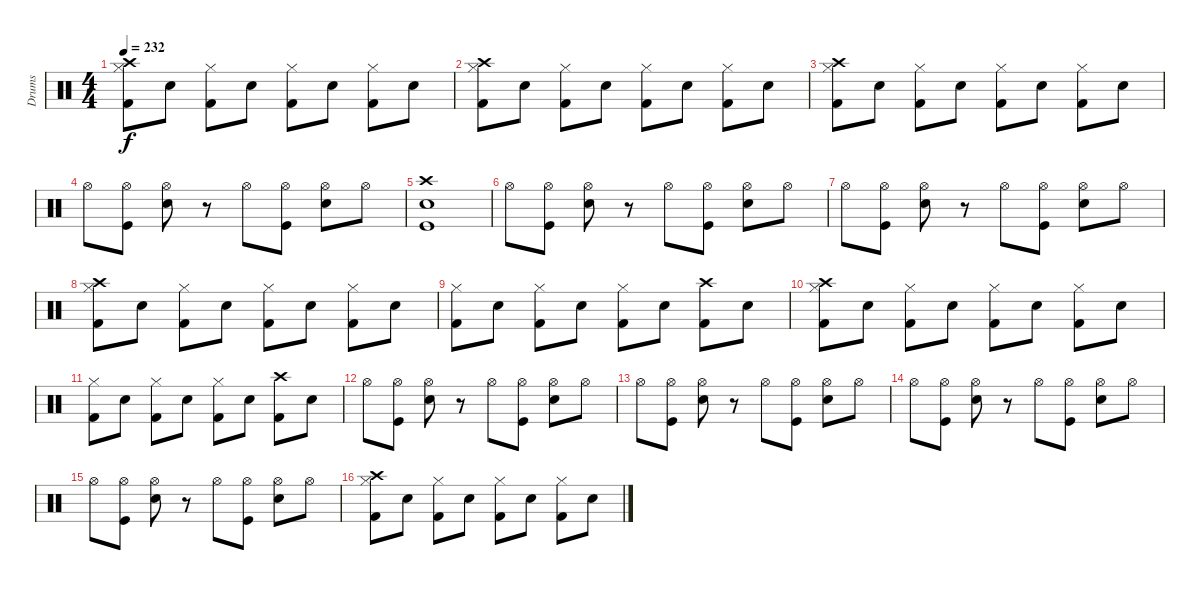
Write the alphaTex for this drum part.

\track ("Drums" "Drums") {instrument percussion}
\staff {score}
\articulation defaults
\ts (4 4)
\tempo 232
\clef neutral
\ks c
("Hi-Hat (closed)" "Crash high (hit)" "Kick (hit) 2").8{dy f} "Electric Snare (hit)".8 ("Hi-Hat (closed)" "Kick (hit) 2").8 "Electric Snare (hit)".8 ("Hi-Hat (closed)" "Kick (hit) 2").8 "Electric Snare (hit)".8 ("Hi-Hat (closed)" "Kick (hit) 2").8 "Electric Snare (hit)".8 |
("Hi-Hat (closed)" "Crash high (hit)" "Kick (hit) 2").8 "Electric Snare (hit)".8 ("Hi-Hat (closed)" "Kick (hit) 2").8 "Electric Snare (hit)".8 ("Hi-Hat (closed)" "Kick (hit) 2").8 "Electric Snare (hit)".8 ("Hi-Hat (closed)" "Kick (hit) 2").8 "Electric Snare (hit)".8 |
("Hi-Hat (closed)" "Crash high (hit)" "Kick (hit) 2").8 "Electric Snare (hit)".8 ("Hi-Hat (closed)" "Kick (hit) 2").8 "Electric Snare (hit)".8 ("Hi-Hat (closed)" "Kick (hit) 2").8 "Electric Snare (hit)".8 ("Hi-Hat (closed)" "Kick (hit) 2").8 "Electric Snare (hit)".8 |
"Hi-Hat (open)".8 ("Hi-Hat (open)" "Kick (hit)").8 ("Hi-Hat (open)" "Electric Snare (hit)").8 r.8 "Hi-Hat (open)".8 ("Hi-Hat (open)" "Kick (hit)").8 ("Hi-Hat (open)" "Electric Snare (hit)").8 "Hi-Hat (open)".8 |
("Crash high (hit)" "Snare (hit) 2" "Kick (hit)").1 |
"Hi-Hat (open)".8 ("Hi-Hat (open)" "Kick (hit)").8 ("Hi-Hat (open)" "Electric Snare (hit)").8 r.8 "Hi-Hat (open)".8 ("Hi-Hat (open)" "Kick (hit)").8 ("Hi-Hat (open)" "Electric Snare (hit)").8 "Hi-Hat (open)".8 |
"Hi-Hat (open)".8 ("Hi-Hat (open)" "Kick (hit)").8 ("Hi-Hat (open)" "Electric Snare (hit)").8 r.8 "Hi-Hat (open)".8 ("Hi-Hat (open)" "Kick (hit)").8 ("Hi-Hat (open)" "Electric Snare (hit)").8 "Hi-Hat (open)".8 |
("Hi-Hat (closed)" "Crash high (hit)" "Kick (hit) 2").8 "Electric Snare (hit)".8 ("Hi-Hat (closed)" "Kick (hit) 2").8 "Electric Snare (hit)".8 ("Hi-Hat (closed)" "Kick (hit) 2").8 "Electric Snare (hit)".8 ("Hi-Hat (closed)" "Kick (hit) 2").8 "Electric Snare (hit)".8 |
("Hi-Hat (closed)" "Kick (hit) 2").8 "Electric Snare (hit)".8 ("Hi-Hat (closed)" "Kick (hit) 2").8 "Electric Snare (hit)".8 ("Hi-Hat (closed)" "Kick (hit) 2").8 "Electric Snare (hit)".8 ("Crash high (hit)" "Kick (hit) 2").8 "Electric Snare (hit)".8 |
("Hi-Hat (closed)" "Crash high (hit)" "Kick (hit) 2").8 "Electric Snare (hit)".8 ("Hi-Hat (closed)" "Kick (hit) 2").8 "Electric Snare (hit)".8 ("Hi-Hat (closed)" "Kick (hit) 2").8 "Electric Snare (hit)".8 ("Hi-Hat (closed)" "Kick (hit) 2").8 "Electric Snare (hit)".8 |
("Hi-Hat (closed)" "Kick (hit) 2").8 "Electric Snare (hit)".8 ("Hi-Hat (closed)" "Kick (hit) 2").8 "Electric Snare (hit)".8 ("Hi-Hat (closed)" "Kick (hit) 2").8 "Electric Snare (hit)".8 ("Crash high (hit)" "Kick (hit) 2").8 "Electric Snare (hit)".8 |
"Hi-Hat (open)".8 ("Hi-Hat (open)" "Kick (hit)").8 ("Hi-Hat (open)" "Electric Snare (hit)").8 r.8 "Hi-Hat (open)".8 ("Hi-Hat (open)" "Kick (hit)").8 ("Hi-Hat (open)" "Electric Snare (hit)").8 "Hi-Hat (open)".8 |
"Hi-Hat (open)".8 ("Hi-Hat (open)" "Kick (hit)").8 ("Hi-Hat (open)" "Electric Snare (hit)").8 r.8 "Hi-Hat (open)".8 ("Hi-Hat (open)" "Kick (hit)").8 ("Hi-Hat (open)" "Electric Snare (hit)").8 "Hi-Hat (open)".8 |
"Hi-Hat (open)".8 ("Hi-Hat (open)" "Kick (hit)").8 ("Hi-Hat (open)" "Electric Snare (hit)").8 r.8 "Hi-Hat (open)".8 ("Hi-Hat (open)" "Kick (hit)").8 ("Hi-Hat (open)" "Electric Snare (hit)").8 "Hi-Hat (open)".8 |
"Hi-Hat (open)".8 ("Hi-Hat (open)" "Kick (hit)").8 ("Hi-Hat (open)" "Electric Snare (hit)").8 r.8 "Hi-Hat (open)".8 ("Hi-Hat (open)" "Kick (hit)").8 ("Hi-Hat (open)" "Electric Snare (hit)").8 "Hi-Hat (open)".8 |
("Hi-Hat (closed)" "Crash high (hit)" "Kick (hit) 2").8 "Electric Snare (hit)".8 ("Hi-Hat (closed)" "Kick (hit) 2").8 "Electric Snare (hit)".8 ("Hi-Hat (closed)" "Kick (hit) 2").8 "Electric Snare (hit)".8 ("Hi-Hat (closed)" "Kick (hit) 2").8 "Electric Snare (hit)".8
